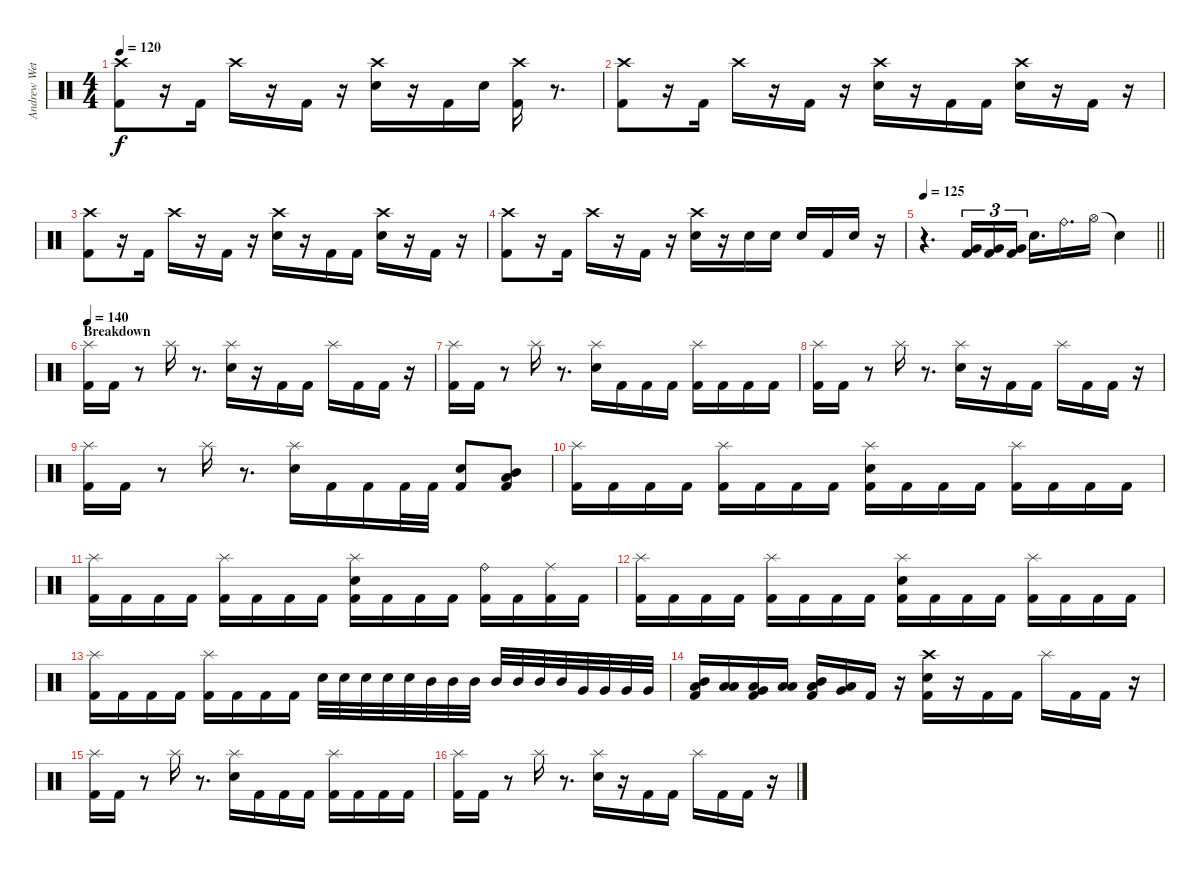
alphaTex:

\track ("Andrew Wetzel" "Andrew Wet") {instrument percussion}
\staff {score}
\articulation defaults
\ts (4 4)
\tempo 120
\clef neutral
\ks c
("Crash high (hit)" "Kick (hit) 2").8{dy f} r.16 "Kick (hit) 2".16 "Crash high (hit)".16 r.16 "Kick (hit) 2".16 r.16 ("Crash high (hit)" "Electric Snare (hit)").16 r.16 "Kick (hit) 2".16 "Electric Snare (hit)".16 ("Crash high (hit)" "Kick (hit) 2").16 r.8{d} |
("Crash high (hit)" "Kick (hit) 2").8 r.16 "Kick (hit) 2".16 "Crash high (hit)".16 r.16 "Kick (hit) 2".16 r.16 ("Crash high (hit)" "Electric Snare (hit)").16 r.16 "Kick (hit) 2".16 "Kick (hit) 2".16 ("Crash high (hit)" "Electric Snare (hit)").16 r.16 "Kick (hit) 2".16 r.16 |
("Crash high (hit)" "Kick (hit) 2").8 r.16 "Kick (hit) 2".16 "Crash high (hit)".16 r.16 "Kick (hit) 2".16 r.16 ("Crash high (hit)" "Electric Snare (hit)").16 r.16 "Kick (hit) 2".16 "Kick (hit) 2".16 ("Crash high (hit)" "Electric Snare (hit)").16 r.16 "Kick (hit) 2".16 r.16 |
("Crash high (hit)" "Kick (hit) 2").8 r.16 "Kick (hit) 2".16 "Crash high (hit)".16 r.16 "Kick (hit) 2".16 r.16 ("Crash high (hit)" "Electric Snare (hit)").16 r.16 "Electric Snare (hit)".16 "Electric Snare (hit)".16 "Electric Snare (hit)".16 "Kick (hit) 2".16 "Electric Snare (hit)".16 r.16 |
\tempo 125
\barLineRight lightlight
r.4{d} ("Very Low Tom (hit)" "Kick (hit) 2").16{tu (3 2)} ("Very Low Tom (hit)" "Kick (hit) 2").16{tu (3 2)} ("Very Low Tom (hit)" "Kick (hit) 2").16{tu (3 2)} "Snare (hit) 2".16{d} "Ride (bell)".16{d} "Hi-Hat (open)".16 "Snare (hit)"{t}.4 |
\section ("" "Breakdown")
\tempo 140
("Splash (hit)" "Kick (hit) 2").16 "Kick (hit) 2".16 r.8 "Splash (hit)".16 r.8{d} ("Splash (hit)" "Electric Snare (hit)").16 r.16 "Kick (hit) 2".16 "Kick (hit) 2".16 "Splash (hit)".16 "Kick (hit) 2".16 "Kick (hit) 2".16 r.16 |
("Splash (hit)" "Kick (hit) 2").16 "Kick (hit) 2".16 r.8 "Splash (hit)".16 r.8{d} ("Splash (hit)" "Electric Snare (hit)").16 "Kick (hit) 2".16 "Kick (hit) 2".16 "Kick (hit) 2".16 ("Splash (hit)" "Kick (hit) 2").16 "Kick (hit) 2".16 "Kick (hit) 2".16 "Kick (hit) 2".16 |
("Splash (hit)" "Kick (hit) 2").16 "Kick (hit) 2".16 r.8 "Splash (hit)".16 r.8{d} ("Splash (hit)" "Electric Snare (hit)").16 r.16 "Kick (hit) 2".16 "Kick (hit) 2".16 "Splash (hit)".16 "Kick (hit) 2".16 "Kick (hit) 2".16 r.16 |
("Splash (hit)" "Kick (hit) 2").16 "Kick (hit) 2".16 r.8 "Splash (hit)".16 r.8{d} ("Splash (hit)" "Electric Snare (hit)").16 "Kick (hit) 2".16 "Kick (hit) 2".16 "Kick (hit) 2".32 "Kick (hit) 2".32 ("Electric Snare (hit)" "Kick (hit) 2").8 ("Low Tom (hit)" "Mid Tom (hit)" "Kick (hit) 2").8 |
("Splash (hit)" "Kick (hit) 2").16 "Kick (hit) 2".16 "Kick (hit) 2".16 "Kick (hit) 2".16 ("Splash (hit)" "Kick (hit) 2").16 "Kick (hit) 2".16 "Kick (hit) 2".16 "Kick (hit) 2".16 ("Splash (hit)" "Electric Snare (hit)" "Kick (hit) 2").16 "Kick (hit) 2".16 "Kick (hit) 2".16 "Kick (hit) 2".16 ("Splash (hit)" "Kick (hit) 2").16 "Kick (hit) 2".16 "Kick (hit) 2".16 "Kick (hit) 2".16 |
("Splash (hit)" "Kick (hit) 2").16 "Kick (hit) 2".16 "Kick (hit) 2".16 "Kick (hit) 2".16 ("Splash (hit)" "Kick (hit) 2").16 "Kick (hit) 2".16 "Kick (hit) 2".16 "Kick (hit) 2".16 ("Splash (hit)" "Electric Snare (hit)" "Kick (hit) 2").16 "Kick (hit) 2".16 "Kick (hit) 2".16 "Kick (hit) 2".16 ("Ride (bell)" "Kick (hit) 2").16 "Kick (hit) 2".16 ("Ride (middle)" "Kick (hit) 2").16 "Kick (hit) 2".16 |
("Splash (hit)" "Kick (hit) 2").16 "Kick (hit) 2".16 "Kick (hit) 2".16 "Kick (hit) 2".16 ("Splash (hit)" "Kick (hit) 2").16 "Kick (hit) 2".16 "Kick (hit) 2".16 "Kick (hit) 2".16 ("Splash (hit)" "Electric Snare (hit)" "Kick (hit) 2").16 "Kick (hit) 2".16 "Kick (hit) 2".16 "Kick (hit) 2".16 ("Splash (hit)" "Kick (hit) 2").16 "Kick (hit) 2".16 "Kick (hit) 2".16 "Kick (hit) 2".16 |
("Splash (hit)" "Kick (hit) 2").16 "Kick (hit) 2".16 "Kick (hit) 2".16 "Kick (hit) 2".16 ("Splash (hit)" "Kick (hit) 2").16 "Kick (hit) 2".16 "Kick (hit) 2".16 "Kick (hit) 2".16 "Electric Snare (hit)".32 "Electric Snare (hit)".32 "Electric Snare (hit)".32 "Electric Snare (hit)".32 "Electric Snare (hit)".32 "Mid Tom (hit)".32 "Mid Tom (hit)".32 "Mid Tom (hit)".32 "Mid Tom (hit)".32 "Mid Tom (hit)".32 "Mid Tom (hit)".32 "Mid Tom (hit)".32 "Very Low Tom (hit)".32 "Very Low Tom (hit)".32 "Very Low Tom (hit)".32 "Very Low Tom (hit)".32 |
("Low Floor Tom (hit)" "Mid Tom (hit)" "Kick (hit) 2").16 ("Low Floor Tom (hit)" "Low Tom (hit)").16 ("Low Floor Tom (hit)" "Very Low Tom (hit)" "Kick (hit) 2").16 ("Low Floor Tom (hit)" "Low Floor Tom (hit)").16 ("Low Floor Tom (hit)" "Mid Tom (hit)" "Kick (hit) 2").16 ("Low Floor Tom (hit)" "Very Low Tom (hit)").16 "Kick (hit) 2".16 r.16 ("Crash high (hit)" "Electric Snare (hit)" "Kick (hit) 2").16 r.16 "Kick (hit) 2".16 "Kick (hit) 2".16 "Splash (hit)".16 "Kick (hit) 2".16 "Kick (hit) 2".16 r.16 |
("Splash (hit)" "Kick (hit) 2").16 "Kick (hit) 2".16 r.8 "Splash (hit)".16 r.8{d} ("Splash (hit)" "Electric Snare (hit)").16 "Kick (hit) 2".16 "Kick (hit) 2".16 "Kick (hit) 2".16 ("Splash (hit)" "Kick (hit) 2").16 "Kick (hit) 2".16 "Kick (hit) 2".16 "Kick (hit) 2".16 |
("Splash (hit)" "Kick (hit) 2").16 "Kick (hit) 2".16 r.8 "Splash (hit)".16 r.8{d} ("Splash (hit)" "Electric Snare (hit)").16 r.16 "Kick (hit) 2".16 "Kick (hit) 2".16 "Splash (hit)".16 "Kick (hit) 2".16 "Kick (hit) 2".16 r.16
